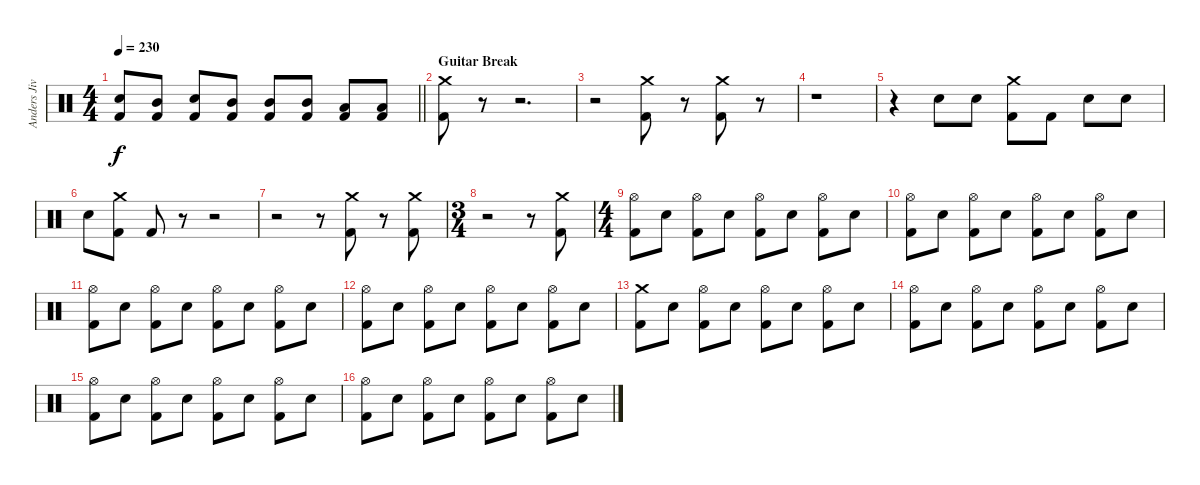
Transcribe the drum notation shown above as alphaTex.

\track ("Anders Jivarp" "Anders Jiv") {instrument percussion}
\staff {score}
\articulation defaults
\ts (4 4)
\tempo 230
\clef neutral
\barLineRight lightlight
\ks c
("Kick (hit) 2" "Electric Snare (hit)").8{dy f} ("Kick (hit) 2" "Mid Tom (hit)").8 ("Kick (hit) 2" "Electric Snare (hit)").8 ("Kick (hit) 2" "Mid Tom (hit)").8 ("Kick (hit) 2" "Mid Tom (hit)").8 ("Kick (hit) 2" "Mid Tom (hit)").8 ("Kick (hit) 2" "Low Tom (hit)").8 ("Kick (hit) 2" "Low Tom (hit)").8 |
\section ("" "Guitar Break")
("Kick (hit) 2" "Crash medium (hit)").8 r.8 r.2{d} |
r.2 ("Kick (hit) 2" "Crash medium (hit)").8 r.8 ("Kick (hit) 2" "Crash medium (hit)").8 r.8 |
r.1 |
r.4 "Electric Snare (hit)".8 "Electric Snare (hit)".8 ("Kick (hit) 2" "Crash medium (hit)").8 "Kick (hit) 2".8 "Electric Snare (hit)".8 "Electric Snare (hit)".8 |
"Electric Snare (hit)".8 ("Kick (hit) 2" "Crash medium (hit)").8 "Kick (hit) 2".8 r.8 r.2 |
r.2 r.8 ("Kick (hit) 2" "Crash medium (hit)").8 r.8 ("Kick (hit) 2" "Crash medium (hit)").8 |
\ts (3 4)
r.2 r.8 ("Kick (hit) 2" "Crash medium (hit)").8 |
\ts (4 4)
("Kick (hit) 2" "Hi-Hat (open)").8 "Electric Snare (hit)".8 ("Kick (hit) 2" "Hi-Hat (open)").8 "Electric Snare (hit)".8 ("Kick (hit) 2" "Hi-Hat (open)").8 "Electric Snare (hit)".8 ("Kick (hit) 2" "Hi-Hat (open)").8 "Electric Snare (hit)".8 |
("Kick (hit) 2" "Hi-Hat (open)").8 "Electric Snare (hit)".8 ("Kick (hit) 2" "Hi-Hat (open)").8 "Electric Snare (hit)".8 ("Kick (hit) 2" "Hi-Hat (open)").8 "Electric Snare (hit)".8 ("Kick (hit) 2" "Hi-Hat (open)").8 "Electric Snare (hit)".8 |
("Kick (hit) 2" "Hi-Hat (open)").8 "Electric Snare (hit)".8 ("Kick (hit) 2" "Hi-Hat (open)").8 "Electric Snare (hit)".8 ("Kick (hit) 2" "Hi-Hat (open)").8 "Electric Snare (hit)".8 ("Kick (hit) 2" "Hi-Hat (open)").8 "Electric Snare (hit)".8 |
("Kick (hit) 2" "Hi-Hat (open)").8 "Electric Snare (hit)".8 ("Kick (hit) 2" "Hi-Hat (open)").8 "Electric Snare (hit)".8 ("Kick (hit) 2" "Hi-Hat (open)").8 "Electric Snare (hit)".8 ("Kick (hit) 2" "Hi-Hat (open)").8 "Electric Snare (hit)".8 |
("Kick (hit) 2" "Crash medium (hit)").8 "Electric Snare (hit)".8 ("Kick (hit) 2" "Hi-Hat (open)").8 "Electric Snare (hit)".8 ("Kick (hit) 2" "Hi-Hat (open)").8 "Electric Snare (hit)".8 ("Kick (hit) 2" "Hi-Hat (open)").8 "Electric Snare (hit)".8 |
("Kick (hit) 2" "Hi-Hat (open)").8 "Electric Snare (hit)".8 ("Kick (hit) 2" "Hi-Hat (open)").8 "Electric Snare (hit)".8 ("Kick (hit) 2" "Hi-Hat (open)").8 "Electric Snare (hit)".8 ("Kick (hit) 2" "Hi-Hat (open)").8 "Electric Snare (hit)".8 |
("Kick (hit) 2" "Hi-Hat (open)").8 "Electric Snare (hit)".8 ("Kick (hit) 2" "Hi-Hat (open)").8 "Electric Snare (hit)".8 ("Kick (hit) 2" "Hi-Hat (open)").8 "Electric Snare (hit)".8 ("Kick (hit) 2" "Hi-Hat (open)").8 "Electric Snare (hit)".8 |
("Kick (hit) 2" "Hi-Hat (open)").8 "Electric Snare (hit)".8 ("Kick (hit) 2" "Hi-Hat (open)").8 "Electric Snare (hit)".8 ("Kick (hit) 2" "Hi-Hat (open)").8 "Electric Snare (hit)".8 ("Kick (hit) 2" "Hi-Hat (open)").8 "Electric Snare (hit)".8
